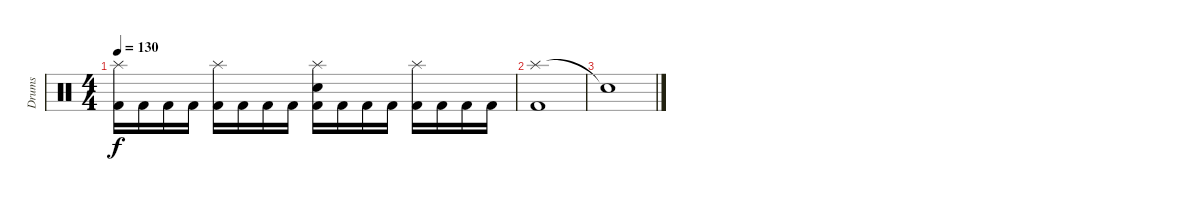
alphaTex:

\track ("Drums" "Drums") {instrument percussion}
\staff {score}
\articulation defaults
\ts (4 4)
\tempo 130
\clef neutral
\ks c
("Splash (hit)" "Kick (hit) 2").16{dy f} "Kick (hit) 2".16 "Kick (hit) 2".16 "Kick (hit) 2".16 ("Splash (hit)" "Kick (hit) 2").16 "Kick (hit) 2".16 "Kick (hit) 2".16 "Kick (hit) 2".16 ("Splash (hit)" "Electric Snare (hit)" "Kick (hit) 2").16 "Kick (hit) 2".16 "Kick (hit) 2".16 "Kick (hit) 2".16 ("Splash (hit)" "Kick (hit) 2").16 "Kick (hit) 2".16 "Kick (hit) 2".16 "Kick (hit) 2".16 |
("Splash (hit)" "Kick (hit) 2").1 |
"Snare (hit)"{t}.1
